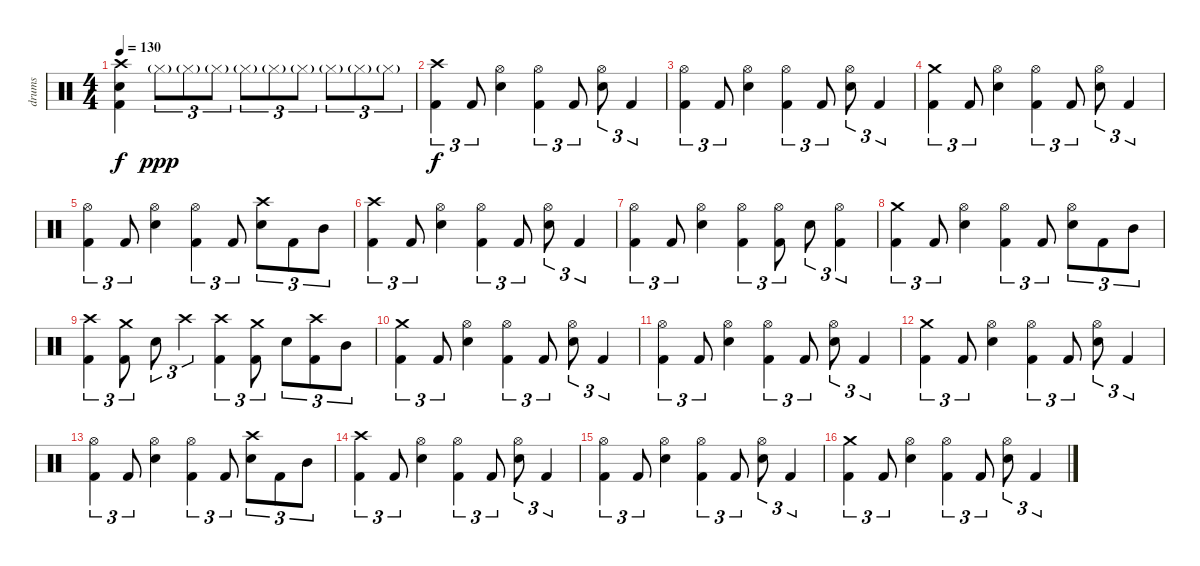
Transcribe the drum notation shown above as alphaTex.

\track ("drums" "drums") {instrument percussion}
\staff {score}
\articulation defaults
\ts (4 4)
\tempo 130
\clef neutral
\ks c
("Crash high (hit)" "Electric Snare (hit)" "Kick (hit) 2").4{dy f} "Hi-Hat (closed)"{g}.8{tu (3 2) dy ppp} "Hi-Hat (closed)"{g}.8{tu (3 2)} "Hi-Hat (closed)"{g}.8{tu (3 2)} "Hi-Hat (closed)"{g}.8{tu (3 2)} "Hi-Hat (closed)"{g}.8{tu (3 2)} "Hi-Hat (closed)"{g}.8{tu (3 2)} "Hi-Hat (closed)"{g}.8{tu (3 2)} "Hi-Hat (closed)"{g}.8{tu (3 2)} "Hi-Hat (closed)"{g}.8{tu (3 2)} |
("Crash high (hit)" "Kick (hit) 2").4{tu (3 2) dy f} "Kick (hit) 2".8{tu (3 2)} ("Hi-Hat (open)" "Electric Snare (hit)").4 ("Hi-Hat (open)" "Kick (hit) 2").4{tu (3 2)} "Kick (hit) 2".8{tu (3 2)} ("Hi-Hat (open)" "Electric Snare (hit)").8{tu (3 2)} "Kick (hit) 2".4{tu (3 2)} |
("Hi-Hat (open)" "Kick (hit) 2").4{tu (3 2)} "Kick (hit) 2".8{tu (3 2)} ("Hi-Hat (open)" "Electric Snare (hit)").4 ("Hi-Hat (open)" "Kick (hit) 2").4{tu (3 2)} "Kick (hit) 2".8{tu (3 2)} ("Hi-Hat (open)" "Electric Snare (hit)").8{tu (3 2)} "Kick (hit) 2".4{tu (3 2)} |
("Crash medium (hit)" "Kick (hit) 2").4{tu (3 2)} "Kick (hit) 2".8{tu (3 2)} ("Hi-Hat (open)" "Electric Snare (hit)").4 ("Hi-Hat (open)" "Kick (hit) 2").4{tu (3 2)} "Kick (hit) 2".8{tu (3 2)} ("Hi-Hat (open)" "Electric Snare (hit)").8{tu (3 2)} "Kick (hit) 2".4{tu (3 2)} |
("Hi-Hat (open)" "Kick (hit) 2").4{tu (3 2)} "Kick (hit) 2".8{tu (3 2)} ("Hi-Hat (open)" "Electric Snare (hit)").4 ("Hi-Hat (open)" "Kick (hit) 2").4{tu (3 2)} "Kick (hit) 2".8{tu (3 2)} ("Crash high (hit)" "Electric Snare (hit)").8{tu (3 2)} "Kick (hit) 2".8{tu (3 2)} "Mid Tom (hit)".8{tu (3 2)} |
("Crash high (hit)" "Kick (hit) 2").4{tu (3 2)} "Kick (hit) 2".8{tu (3 2)} ("Hi-Hat (open)" "Electric Snare (hit)").4 ("Hi-Hat (open)" "Kick (hit) 2").4{tu (3 2)} "Kick (hit) 2".8{tu (3 2)} ("Hi-Hat (open)" "Electric Snare (hit)").8{tu (3 2)} "Kick (hit) 2".4{tu (3 2)} |
("Hi-Hat (open)" "Kick (hit) 2").4{tu (3 2)} "Kick (hit) 2".8{tu (3 2)} ("Hi-Hat (open)" "Electric Snare (hit)").4 ("Hi-Hat (open)" "Kick (hit) 2").4{tu (3 2)} ("Hi-Hat (open)" "Kick (hit) 2").8{tu (3 2)} "Electric Snare (hit)".8{tu (3 2)} ("Hi-Hat (open)" "Kick (hit) 2").4{tu (3 2)} |
("Crash medium (hit)" "Kick (hit) 2").4{tu (3 2)} "Kick (hit) 2".8{tu (3 2)} ("Hi-Hat (open)" "Electric Snare (hit)").4 ("Hi-Hat (open)" "Kick (hit) 2").4{tu (3 2)} "Kick (hit) 2".8{tu (3 2)} ("Hi-Hat (open)" "Electric Snare (hit)").8{tu (3 2)} "Kick (hit) 2".8{tu (3 2)} "Mid Tom (hit)".8{tu (3 2)} |
("Crash high (hit)" "Kick (hit) 2").4{tu (3 2)} ("Crash medium (hit)" "Kick (hit) 2").8{tu (3 2)} "Electric Snare (hit)".8{tu (3 2)} "Crash high (hit)".4{tu (3 2)} ("Crash high (hit)" "Kick (hit) 2").4{tu (3 2)} ("Crash medium (hit)" "Kick (hit) 2").8{tu (3 2)} "Electric Snare (hit)".8{tu (3 2)} ("Crash high (hit)" "Kick (hit) 2").8{tu (3 2)} "Mid Tom (hit)".8{tu (3 2)} |
("Crash medium (hit)" "Kick (hit) 2").4{tu (3 2)} "Kick (hit) 2".8{tu (3 2)} ("Hi-Hat (open)" "Electric Snare (hit)").4 ("Hi-Hat (open)" "Kick (hit) 2").4{tu (3 2)} "Kick (hit) 2".8{tu (3 2)} ("Hi-Hat (open)" "Electric Snare (hit)").8{tu (3 2)} "Kick (hit) 2".4{tu (3 2)} |
("Hi-Hat (open)" "Kick (hit) 2").4{tu (3 2)} "Kick (hit) 2".8{tu (3 2)} ("Hi-Hat (open)" "Electric Snare (hit)").4 ("Hi-Hat (open)" "Kick (hit) 2").4{tu (3 2)} "Kick (hit) 2".8{tu (3 2)} ("Hi-Hat (open)" "Electric Snare (hit)").8{tu (3 2)} "Kick (hit) 2".4{tu (3 2)} |
("Crash medium (hit)" "Kick (hit) 2").4{tu (3 2)} "Kick (hit) 2".8{tu (3 2)} ("Hi-Hat (open)" "Electric Snare (hit)").4 ("Hi-Hat (open)" "Kick (hit) 2").4{tu (3 2)} "Kick (hit) 2".8{tu (3 2)} ("Hi-Hat (open)" "Electric Snare (hit)").8{tu (3 2)} "Kick (hit) 2".4{tu (3 2)} |
("Hi-Hat (open)" "Kick (hit) 2").4{tu (3 2)} "Kick (hit) 2".8{tu (3 2)} ("Hi-Hat (open)" "Electric Snare (hit)").4 ("Hi-Hat (open)" "Kick (hit) 2").4{tu (3 2)} "Kick (hit) 2".8{tu (3 2)} ("Crash high (hit)" "Electric Snare (hit)").8{tu (3 2)} "Kick (hit) 2".8{tu (3 2)} "Mid Tom (hit)".8{tu (3 2)} |
("Crash high (hit)" "Kick (hit) 2").4{tu (3 2)} "Kick (hit) 2".8{tu (3 2)} ("Hi-Hat (open)" "Electric Snare (hit)").4 ("Hi-Hat (open)" "Kick (hit) 2").4{tu (3 2)} "Kick (hit) 2".8{tu (3 2)} ("Hi-Hat (open)" "Electric Snare (hit)").8{tu (3 2)} "Kick (hit) 2".4{tu (3 2)} |
("Hi-Hat (open)" "Kick (hit) 2").4{tu (3 2)} "Kick (hit) 2".8{tu (3 2)} ("Hi-Hat (open)" "Electric Snare (hit)").4 ("Hi-Hat (open)" "Kick (hit) 2").4{tu (3 2)} "Kick (hit) 2".8{tu (3 2)} ("Hi-Hat (open)" "Electric Snare (hit)").8{tu (3 2)} "Kick (hit) 2".4{tu (3 2)} |
("Crash medium (hit)" "Kick (hit) 2").4{tu (3 2)} "Kick (hit) 2".8{tu (3 2)} ("Hi-Hat (open)" "Electric Snare (hit)").4 ("Hi-Hat (open)" "Kick (hit) 2").4{tu (3 2)} "Kick (hit) 2".8{tu (3 2)} ("Hi-Hat (open)" "Electric Snare (hit)").8{tu (3 2)} "Kick (hit) 2".4{tu (3 2)}
